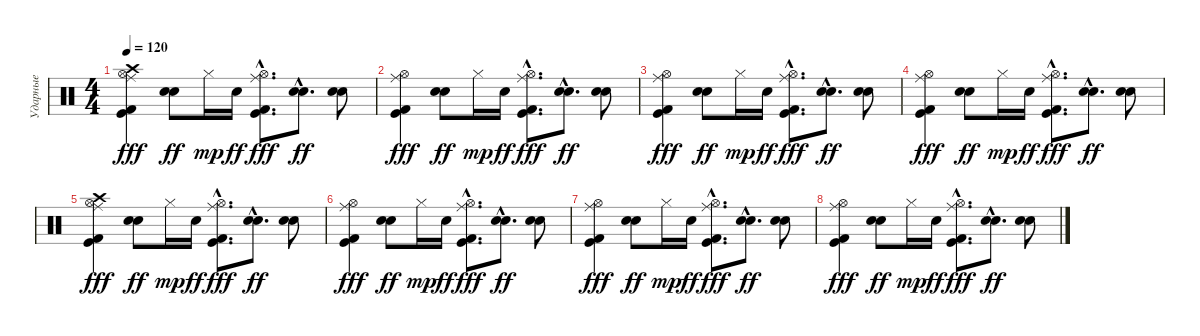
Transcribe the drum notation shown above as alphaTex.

\track ("Ударные" "Ударные") {instrument percussion}
\staff {score}
\articulation defaults
\ts (4 4)
\tempo 120
\clef neutral
\ks c
("Hi-Hat (open)" "Ride (middle)" "Crash high (hit)" "Kick (hit) 2" "Kick (hit)").4{dy fff} ("Hand Clap (hit)" "Snare (hit) 2").8{dy ff} "Hi-Hat (closed)".16{dy mp} "Snare (hit) 2".16{dy ff} ("Hi-Hat (open)"{hac} "Ride (middle)"{hac} "Kick (hit) 2"{hac} "Kick (hit)"{hac}).8{d dy fff} ("Hand Clap (hit)"{hac} "Snare (hit) 2"{hac}).8{d dy ff} ("Hand Clap (hit)" "Snare (hit) 2").8 |
("Hi-Hat (open)" "Ride (middle)" "Kick (hit) 2" "Kick (hit)").4{dy fff} ("Hand Clap (hit)" "Snare (hit) 2").8{dy ff} "Hi-Hat (closed)".16{dy mp} "Snare (hit) 2".16{dy ff} ("Hi-Hat (open)"{hac} "Ride (middle)"{hac} "Kick (hit) 2"{hac} "Kick (hit)"{hac}).8{d dy fff} ("Hand Clap (hit)"{hac} "Snare (hit) 2"{hac}).8{d dy ff} ("Hand Clap (hit)" "Snare (hit) 2").8 |
("Hi-Hat (open)" "Ride (middle)" "Kick (hit) 2" "Kick (hit)").4{dy fff} ("Hand Clap (hit)" "Snare (hit) 2").8{dy ff} "Hi-Hat (closed)".16{dy mp} "Snare (hit) 2".16{dy ff} ("Hi-Hat (open)"{hac} "Ride (middle)"{hac} "Kick (hit) 2"{hac} "Kick (hit)"{hac}).8{d dy fff} ("Hand Clap (hit)"{hac} "Snare (hit) 2"{hac}).8{d dy ff} ("Hand Clap (hit)" "Snare (hit) 2").8 |
("Hi-Hat (open)" "Ride (middle)" "Kick (hit) 2" "Kick (hit)").4{dy fff} ("Hand Clap (hit)" "Snare (hit) 2").8{dy ff} "Hi-Hat (closed)".16{dy mp} "Snare (hit) 2".16{dy ff} ("Hi-Hat (open)"{hac} "Ride (middle)"{hac} "Kick (hit) 2"{hac} "Kick (hit)"{hac}).8{d dy fff} ("Hand Clap (hit)"{hac} "Snare (hit) 2"{hac}).8{d dy ff} ("Hand Clap (hit)" "Snare (hit) 2").8 |
("Hi-Hat (open)" "Ride (middle)" "Crash high (hit)" "Kick (hit) 2" "Kick (hit)").4{dy fff} ("Hand Clap (hit)" "Snare (hit) 2").8{dy ff} "Hi-Hat (closed)".16{dy mp} "Snare (hit) 2".16{dy ff} ("Hi-Hat (open)"{hac} "Ride (middle)"{hac} "Kick (hit) 2"{hac} "Kick (hit)"{hac}).8{d dy fff} ("Hand Clap (hit)"{hac} "Snare (hit) 2"{hac}).8{d dy ff} ("Hand Clap (hit)" "Snare (hit) 2").8 |
("Hi-Hat (open)" "Ride (middle)" "Kick (hit) 2" "Kick (hit)").4{dy fff} ("Hand Clap (hit)" "Snare (hit) 2").8{dy ff} "Hi-Hat (closed)".16{dy mp} "Snare (hit) 2".16{dy ff} ("Hi-Hat (open)"{hac} "Ride (middle)"{hac} "Kick (hit) 2"{hac} "Kick (hit)"{hac}).8{d dy fff} ("Hand Clap (hit)"{hac} "Snare (hit) 2"{hac}).8{d dy ff} ("Hand Clap (hit)" "Snare (hit) 2").8 |
("Hi-Hat (open)" "Ride (middle)" "Kick (hit) 2" "Kick (hit)").4{dy fff} ("Hand Clap (hit)" "Snare (hit) 2").8{dy ff} "Hi-Hat (closed)".16{dy mp} "Snare (hit) 2".16{dy ff} ("Hi-Hat (open)"{hac} "Ride (middle)"{hac} "Kick (hit) 2"{hac} "Kick (hit)"{hac}).8{d dy fff} ("Hand Clap (hit)"{hac} "Snare (hit) 2"{hac}).8{d dy ff} ("Hand Clap (hit)" "Snare (hit) 2").8 |
("Hi-Hat (open)" "Ride (middle)" "Kick (hit) 2" "Kick (hit)").4{dy fff} ("Hand Clap (hit)" "Snare (hit) 2").8{dy ff} "Hi-Hat (closed)".16{dy mp} "Snare (hit) 2".16{dy ff} ("Hi-Hat (open)"{hac} "Ride (middle)"{hac} "Kick (hit) 2"{hac} "Kick (hit)"{hac}).8{d dy fff} ("Hand Clap (hit)"{hac} "Snare (hit) 2"{hac}).8{d dy ff} ("Hand Clap (hit)" "Snare (hit) 2").8
